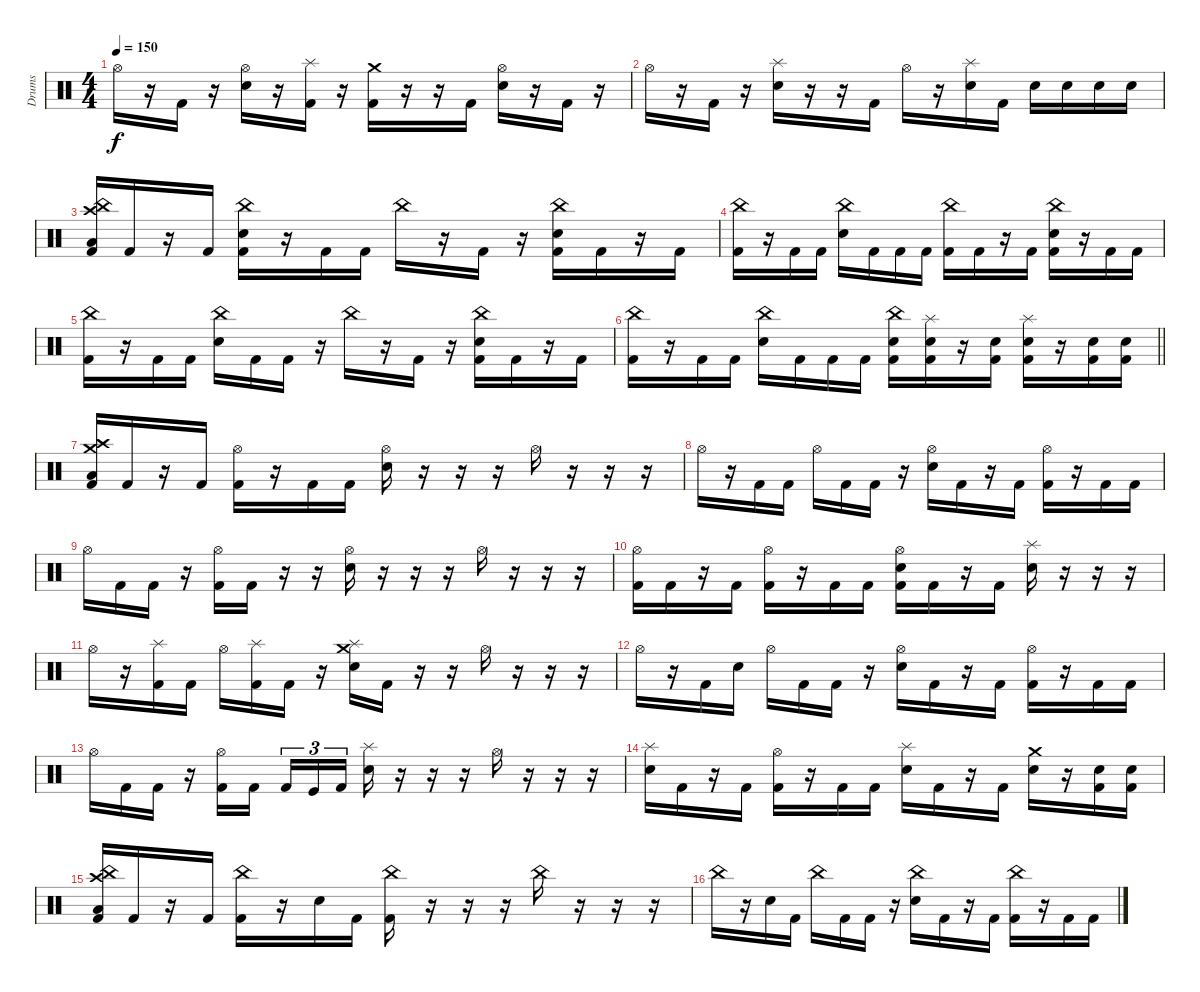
\track ("Drums" "Drums") {instrument percussion}
\staff {score}
\articulation defaults
\ts (4 4)
\tempo 150
\clef neutral
\ks c "Hi-Hat (open)".16{dy f}
r.16 "Kick (hit) 2".16 r.16 ("Hi-Hat (open)" "Electric Snare (hit)").16 r.16 ("Splash (hit)" "Kick (hit) 2").16 r.16 ("Crash medium (hit)" "Kick (hit) 2").16 r.16 r.16 "Kick (hit) 2".16 ("Hi-Hat (open)" "Electric Snare (hit)").16 r.16 "Kick (hit) 2".16 r.16 |
"Hi-Hat (open)".16 r.16 "Kick (hit) 2".16 r.16 ("Splash (hit)" "Electric Snare (hit)").16 r.16 r.16 "Kick (hit) 2".16 "Hi-Hat (open)".16 r.16 ("Splash (hit)" "Electric Snare (hit)").16 "Kick (hit) 2".16 "Electric Snare (hit)".16 "Electric Snare (hit)".16 "Electric Snare (hit)".16 "Electric Snare (hit)".16 |
("Crash high (hit)" "China (hit)" "Low Floor Tom (hit)" "Kick (hit) 2").16 "Kick (hit) 2".16 r.16 "Kick (hit) 2".16 ("China (hit)" "Electric Snare (hit)" "Kick (hit) 2").16 r.16 "Kick (hit) 2".16 "Kick (hit) 2".16 "China (hit)".16 r.16 "Kick (hit) 2".16 r.16 ("China (hit)" "Electric Snare (hit)" "Kick (hit) 2").16 "Kick (hit) 2".16 r.16 "Kick (hit) 2".16 |
("China (hit)" "Kick (hit) 2").16 r.16 "Kick (hit) 2".16 "Kick (hit) 2".16 ("China (hit)" "Electric Snare (hit)").16 "Kick (hit) 2".16 "Kick (hit) 2".16 "Kick (hit) 2".16 ("China (hit)" "Kick (hit) 2").16 "Kick (hit) 2".16 r.16 "Kick (hit) 2".16 ("China (hit)" "Electric Snare (hit)" "Kick (hit) 2").16 r.16 "Kick (hit) 2".16 "Kick (hit) 2".16 |
("China (hit)" "Kick (hit) 2").16 r.16 "Kick (hit) 2".16 "Kick (hit) 2".16 ("China (hit)" "Electric Snare (hit)").16 "Kick (hit) 2".16 "Kick (hit) 2".16 r.16 "China (hit)".16 r.16 "Kick (hit) 2".16 r.16 ("China (hit)" "Electric Snare (hit)" "Kick (hit) 2").16 "Kick (hit) 2".16 r.16 "Kick (hit) 2".16 |
\barLineRight lightlight
("China (hit)" "Kick (hit) 2").16 r.16 "Kick (hit) 2".16 "Kick (hit) 2".16 ("China (hit)" "Electric Snare (hit)").16 "Kick (hit) 2".16 "Kick (hit) 2".16 "Kick (hit) 2".16 ("China (hit)" "Electric Snare (hit)" "Kick (hit) 2").16 ("Splash (hit)" "Electric Snare (hit)" "Kick (hit) 2").16 r.16 ("Electric Snare (hit)" "Kick (hit) 2").16 ("Splash (hit)" "Electric Snare (hit)" "Kick (hit) 2").16 r.16 ("Electric Snare (hit)" "Kick (hit) 2").16 ("Electric Snare (hit)" "Kick (hit) 2").16 |
("Crash medium (hit)" "Crash high (hit)" "Low Floor Tom (hit)" "Kick (hit) 2").16 "Kick (hit) 2".16 r.16 "Kick (hit) 2".16 ("Hi-Hat (open)" "Kick (hit) 2").16 r.16 "Kick (hit) 2".16 "Kick (hit) 2".16 ("Hi-Hat (open)" "Electric Snare (hit)").16 r.16 r.16 r.16 "Hi-Hat (open)".16 r.16 r.16 r.16 |
"Hi-Hat (open)".16 r.16 "Kick (hit) 2".16 "Kick (hit) 2".16 "Hi-Hat (open)".16 "Kick (hit) 2".16 "Kick (hit) 2".16 r.16 ("Hi-Hat (open)" "Electric Snare (hit)").16 "Kick (hit) 2".16 r.16 "Kick (hit) 2".16 ("Hi-Hat (open)" "Kick (hit) 2").16 r.16 "Kick (hit) 2".16 "Kick (hit) 2".16 |
"Hi-Hat (open)".16 "Kick (hit) 2".16 "Kick (hit) 2".16 r.16 ("Hi-Hat (open)" "Kick (hit) 2").16 "Kick (hit) 2".16 r.16 r.16 ("Hi-Hat (open)" "Electric Snare (hit)").16 r.16 r.16 r.16 "Hi-Hat (open)".16 r.16 r.16 r.16 |
("Hi-Hat (open)" "Kick (hit) 2").16 "Kick (hit) 2".16 r.16 "Kick (hit) 2".16 ("Hi-Hat (open)" "Kick (hit) 2").16 r.16 "Kick (hit) 2".16 "Kick (hit) 2".16 ("Hi-Hat (open)" "Electric Snare (hit)" "Kick (hit) 2").16 "Kick (hit) 2".16 r.16 "Kick (hit) 2".16 ("Splash (hit)" "Electric Snare (hit)").16 r.16 r.16 r.16 |
"Hi-Hat (open)".16 r.16 ("Splash (hit)" "Kick (hit) 2").16 "Kick (hit) 2".16 "Hi-Hat (open)".16 ("Splash (hit)" "Kick (hit) 2").16 "Kick (hit) 2".16 r.16 ("Crash medium (hit)" "Splash (hit)" "Electric Snare (hit)").16 "Kick (hit) 2".16 r.16 r.16 "Hi-Hat (open)".16 r.16 r.16 r.16 |
"Hi-Hat (open)".16 r.16 "Kick (hit) 2".16 "Electric Snare (hit)".16 "Hi-Hat (open)".16 "Kick (hit) 2".16 "Kick (hit) 2".16 r.16 ("Hi-Hat (open)" "Electric Snare (hit)").16 "Kick (hit) 2".16 r.16 "Kick (hit) 2".16 ("Hi-Hat (open)" "Kick (hit) 2").16 r.16 "Kick (hit) 2".16 "Kick (hit) 2".16 |
"Hi-Hat (open)".16 "Kick (hit) 2".16 "Kick (hit) 2".16 r.16 ("Hi-Hat (open)" "Kick (hit) 2").16 "Kick (hit) 2".16 "Kick (hit) 2".16{tu (3 2)} "Kick (hit)".16{tu (3 2)} "Kick (hit) 2".16{tu (3 2)} ("Splash (hit)" "Electric Snare (hit)").16 r.16 r.16 r.16 "Hi-Hat (open)".16 r.16 r.16 r.16 |
("Splash (hit)" "Electric Snare (hit)").16 "Kick (hit) 2".16 r.16 "Kick (hit) 2".16 ("Hi-Hat (open)" "Kick (hit) 2").16 r.16 "Kick (hit) 2".16 "Kick (hit) 2".16 ("Splash (hit)" "Electric Snare (hit)").16 "Kick (hit) 2".16 r.16 "Kick (hit) 2".16 ("Crash medium (hit)" "Electric Snare (hit)").16 r.16 ("Electric Snare (hit)" "Kick (hit) 2").16 ("Electric Snare (hit)" "Kick (hit) 2").16 |
("China (hit)" "Crash high (hit)" "Low Floor Tom (hit)" "Kick (hit) 2").16 "Kick (hit) 2".16 r.16 "Kick (hit) 2".16 ("China (hit)" "Kick (hit) 2").16 r.16 "Electric Snare (hit)".16 "Kick (hit) 2".16 ("China (hit)" "Kick (hit) 2").16 r.16 r.16 r.16 "China (hit)".16 r.16 r.16 r.16 |
"China (hit)".16 r.16 "Electric Snare (hit)".16 "Kick (hit) 2".16 "China (hit)".16 "Kick (hit) 2".16 "Kick (hit) 2".16 r.16 ("China (hit)" "Electric Snare (hit)").16 "Kick (hit) 2".16 r.16 "Kick (hit) 2".16 ("China (hit)" "Kick (hit) 2").16 r.16 "Kick (hit) 2".16 "Kick (hit) 2".16
